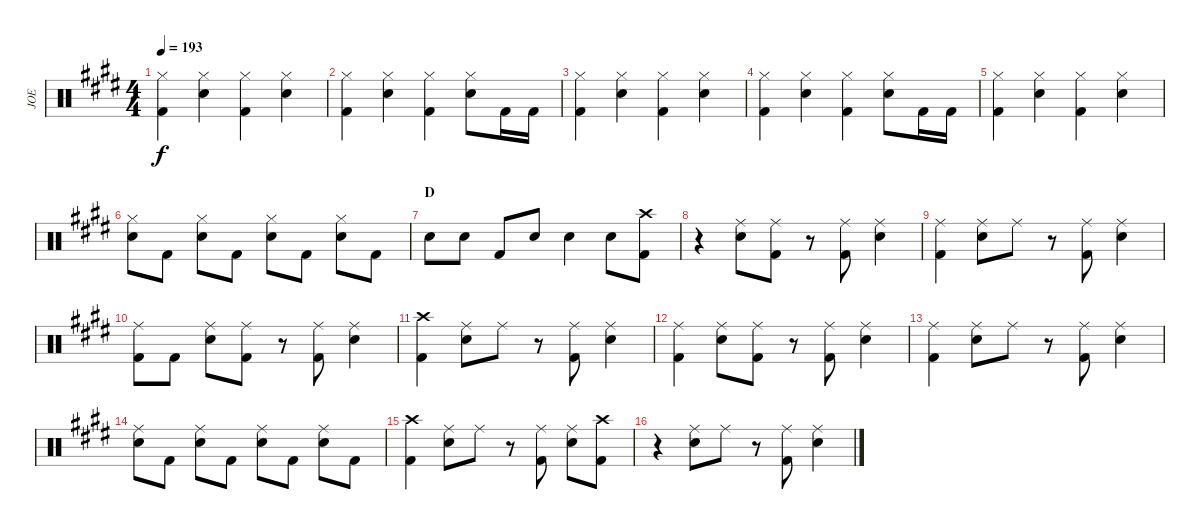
\track ("JOE" "JOE") {instrument percussion}
\staff {score}
\articulation defaults
\ts (4 4)
\tempo 193
\clef neutral
\ks c#minor
("Hi-Hat (closed)" "Kick (hit) 2").4{dy f} ("Hi-Hat (closed)" "Snare (hit) 2").4 ("Hi-Hat (closed)" "Kick (hit) 2").4 ("Hi-Hat (closed)" "Snare (hit) 2").4 |
("Hi-Hat (closed)" "Kick (hit) 2").4 ("Hi-Hat (closed)" "Snare (hit) 2").4 ("Hi-Hat (closed)" "Kick (hit) 2").4 ("Hi-Hat (closed)" "Snare (hit) 2").8 "Kick (hit) 2".16 "Kick (hit) 2".16 |
("Hi-Hat (closed)" "Kick (hit) 2").4 ("Hi-Hat (closed)" "Snare (hit) 2").4 ("Hi-Hat (closed)" "Kick (hit) 2").4 ("Hi-Hat (closed)" "Snare (hit) 2").4 |
("Hi-Hat (closed)" "Kick (hit) 2").4 ("Hi-Hat (closed)" "Snare (hit) 2").4 ("Hi-Hat (closed)" "Kick (hit) 2").4 ("Hi-Hat (closed)" "Snare (hit) 2").8 "Kick (hit) 2".16 "Kick (hit) 2".16 |
("Hi-Hat (closed)" "Kick (hit) 2").4 ("Hi-Hat (closed)" "Snare (hit) 2").4 ("Hi-Hat (closed)" "Kick (hit) 2").4 ("Hi-Hat (closed)" "Snare (hit) 2").4 |
("Hi-Hat (closed)" "Snare (hit) 2").8 "Kick (hit) 2".8 ("Hi-Hat (closed)" "Snare (hit) 2").8 "Kick (hit) 2".8 ("Hi-Hat (closed)" "Snare (hit) 2").8 "Kick (hit) 2".8 ("Hi-Hat (closed)" "Snare (hit) 2").8 "Kick (hit) 2".8 |
\section ("" "D")
"Snare (hit) 2".8 "Snare (hit) 2".8 "Kick (hit) 2".8 "Snare (hit) 2".8 "Snare (hit) 2".4 "Snare (hit) 2".8 ("Crash high (hit)" "Kick (hit) 2").8 |
r.4 ("Ride (middle)" "Snare (hit) 2").8 ("Ride (middle)" "Kick (hit) 2").8 r.8 ("Ride (middle)" "Kick (hit) 2").8 ("Ride (middle)" "Snare (hit) 2").4 |
("Ride (middle)" "Kick (hit) 2").4 ("Ride (middle)" "Snare (hit) 2").8 "Ride (middle)".8 r.8 ("Ride (middle)" "Kick (hit) 2").8 ("Ride (middle)" "Snare (hit) 2").4 |
("Ride (middle)" "Kick (hit) 2").8 "Kick (hit) 2".8 ("Ride (middle)" "Snare (hit) 2").8 ("Ride (middle)" "Kick (hit) 2").8 r.8 ("Ride (middle)" "Kick (hit) 2").8 ("Ride (middle)" "Snare (hit) 2").4 |
("Crash high (hit)" "Kick (hit) 2").4 ("Ride (middle)" "Snare (hit) 2").8 "Ride (middle)".8 r.8 ("Ride (middle)" "Kick (hit) 2").8 ("Ride (middle)" "Snare (hit) 2").4 |
("Ride (middle)" "Kick (hit) 2").4 ("Ride (middle)" "Snare (hit) 2").8 ("Ride (middle)" "Kick (hit) 2").8 r.8 ("Ride (middle)" "Kick (hit) 2").8 ("Ride (middle)" "Snare (hit) 2").4 |
("Ride (middle)" "Kick (hit) 2").4 ("Ride (middle)" "Snare (hit) 2").8 "Ride (middle)".8 r.8 ("Ride (middle)" "Kick (hit) 2").8 ("Ride (middle)" "Snare (hit) 2").4 |
("Ride (middle)" "Snare (hit) 2").8 "Kick (hit) 2".8 ("Ride (middle)" "Snare (hit) 2").8 "Kick (hit) 2".8 ("Ride (middle)" "Snare (hit) 2").8 "Kick (hit) 2".8 ("Ride (middle)" "Snare (hit) 2").8 "Kick (hit) 2".8 |
("Crash high (hit)" "Kick (hit) 2").4 ("Ride (middle)" "Snare (hit) 2").8 "Ride (middle)".8 r.8 ("Ride (middle)" "Kick (hit) 2").8 ("Ride (middle)" "Snare (hit) 2").8 ("Crash high (hit)" "Kick (hit) 2").8 |
r.4 ("Ride (middle)" "Snare (hit) 2").8 "Ride (middle)".8 r.8 ("Ride (middle)" "Kick (hit) 2").8 ("Ride (middle)" "Snare (hit) 2").4
